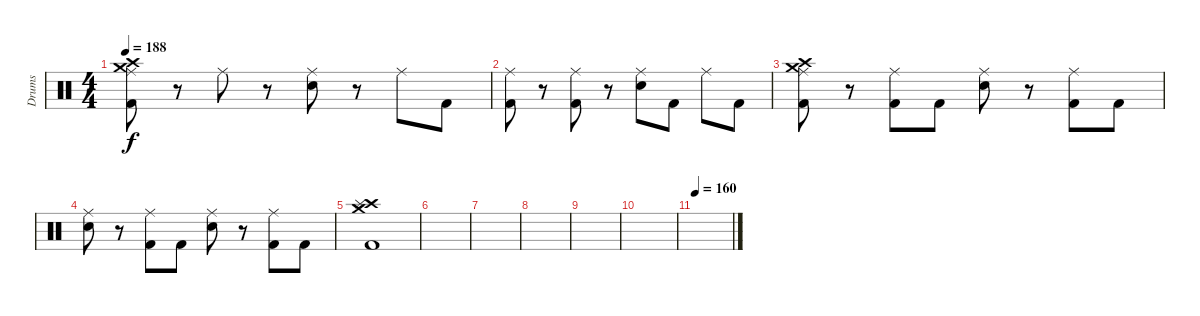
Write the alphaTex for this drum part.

\track ("Drums" "Drums") {instrument percussion}
\staff {score}
\articulation defaults
\ts (4 4)
\tempo 188
\clef neutral
\ks c
("Crash medium (hit)" "Crash high (hit)" "Ride (middle)" "Kick (hit) 2").8{dy f} r.8 "Ride (middle)".8 r.8 ("Ride (middle)" "Snare (hit) 2").8 r.8 "Ride (middle)".8 "Kick (hit) 2".8 |
("Ride (middle)" "Kick (hit) 2").8 r.8 ("Ride (middle)" "Kick (hit) 2").8 r.8 ("Ride (middle)" "Snare (hit) 2").8 "Kick (hit) 2".8 "Ride (middle)".8 "Kick (hit) 2".8 |
("Crash medium (hit)" "Crash high (hit)" "Ride (middle)" "Kick (hit) 2").8 r.8 ("Ride (middle)" "Kick (hit) 2").8 "Kick (hit) 2".8 ("Ride (middle)" "Snare (hit) 2").8 r.8 ("Ride (middle)" "Kick (hit) 2").8 "Kick (hit) 2".8 |
("Ride (middle)" "Snare (hit) 2").8 r.8 ("Ride (middle)" "Kick (hit) 2").8 "Kick (hit) 2".8 ("Ride (middle)" "Snare (hit) 2").8 r.8 ("Ride (middle)" "Kick (hit) 2").8 "Kick (hit) 2".8 |
("Crash medium (hit)" "Crash high (hit)" "Splash (hit)" "Kick (hit) 2").1 |
|
|
|
|
|
\tempo 160
